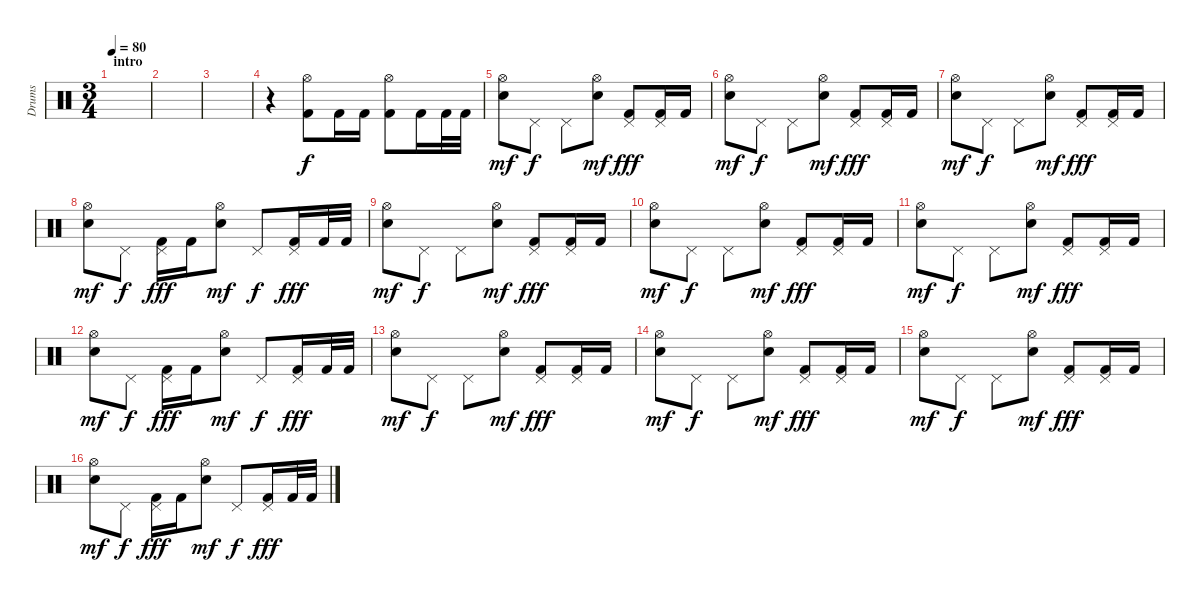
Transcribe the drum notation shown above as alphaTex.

\track ("Drums" "Drums") {instrument percussion}
\staff {score}
\articulation defaults
\ts (3 4)
\section ("" "intro")
\tempo 80
\clef neutral
\ks c
|
|
|
r.4 ("Kick (hit) 2" "Hi-Hat (open)").8 "Kick (hit) 2".16 "Kick (hit) 2".16 ("Kick (hit) 2" "Hi-Hat (open)").8 "Kick (hit) 2".16 "Kick (hit) 2".32 "Kick (hit) 2".32 |
("Hi-Hat (open)" "Snare (hit) 2").8{dy mf} "Pedal Hi-Hat (hit)".8{dy f} "Pedal Hi-Hat (hit)".8 ("Hi-Hat (open)" "Snare (hit) 2").8{dy mf} ("Pedal Hi-Hat (hit)" "Kick (hit) 2").8{dy fff} ("Pedal Hi-Hat (hit)" "Kick (hit) 2").16 "Kick (hit) 2".16 |
("Hi-Hat (open)" "Snare (hit) 2").8{dy mf} "Pedal Hi-Hat (hit)".8{dy f} "Pedal Hi-Hat (hit)".8 ("Hi-Hat (open)" "Snare (hit) 2").8{dy mf} ("Pedal Hi-Hat (hit)" "Kick (hit) 2").8{dy fff} ("Pedal Hi-Hat (hit)" "Kick (hit) 2").16 "Kick (hit) 2".16 |
("Hi-Hat (open)" "Snare (hit) 2").8{dy mf} "Pedal Hi-Hat (hit)".8{dy f} "Pedal Hi-Hat (hit)".8 ("Hi-Hat (open)" "Snare (hit) 2").8{dy mf} ("Pedal Hi-Hat (hit)" "Kick (hit) 2").8{dy fff} ("Pedal Hi-Hat (hit)" "Kick (hit) 2").16 "Kick (hit) 2".16 |
("Hi-Hat (open)" "Snare (hit) 2").8{dy mf} "Pedal Hi-Hat (hit)".8{dy f} ("Pedal Hi-Hat (hit)" "Kick (hit) 2").16{dy fff} "Kick (hit) 2".16 ("Hi-Hat (open)" "Snare (hit) 2").8{dy mf} "Pedal Hi-Hat (hit)".8{dy f} ("Pedal Hi-Hat (hit)" "Kick (hit) 2").16{dy fff} "Kick (hit) 2".32 "Kick (hit) 2".32 |
("Hi-Hat (open)" "Snare (hit) 2").8{dy mf} "Pedal Hi-Hat (hit)".8{dy f} "Pedal Hi-Hat (hit)".8 ("Hi-Hat (open)" "Snare (hit) 2").8{dy mf} ("Pedal Hi-Hat (hit)" "Kick (hit) 2").8{dy fff} ("Pedal Hi-Hat (hit)" "Kick (hit) 2").16 "Kick (hit) 2".16 |
("Hi-Hat (open)" "Snare (hit) 2").8{dy mf} "Pedal Hi-Hat (hit)".8{dy f} "Pedal Hi-Hat (hit)".8 ("Hi-Hat (open)" "Snare (hit) 2").8{dy mf} ("Pedal Hi-Hat (hit)" "Kick (hit) 2").8{dy fff} ("Pedal Hi-Hat (hit)" "Kick (hit) 2").16 "Kick (hit) 2".16 |
("Hi-Hat (open)" "Snare (hit) 2").8{dy mf} "Pedal Hi-Hat (hit)".8{dy f} "Pedal Hi-Hat (hit)".8 ("Hi-Hat (open)" "Snare (hit) 2").8{dy mf} ("Pedal Hi-Hat (hit)" "Kick (hit) 2").8{dy fff} ("Pedal Hi-Hat (hit)" "Kick (hit) 2").16 "Kick (hit) 2".16 |
("Hi-Hat (open)" "Snare (hit) 2").8{dy mf} "Pedal Hi-Hat (hit)".8{dy f} ("Pedal Hi-Hat (hit)" "Kick (hit) 2").16{dy fff} "Kick (hit) 2".16 ("Hi-Hat (open)" "Snare (hit) 2").8{dy mf} "Pedal Hi-Hat (hit)".8{dy f} ("Pedal Hi-Hat (hit)" "Kick (hit) 2").16{dy fff} "Kick (hit) 2".32 "Kick (hit) 2".32 |
("Hi-Hat (open)" "Snare (hit) 2").8{dy mf} "Pedal Hi-Hat (hit)".8{dy f} "Pedal Hi-Hat (hit)".8 ("Hi-Hat (open)" "Snare (hit) 2").8{dy mf} ("Pedal Hi-Hat (hit)" "Kick (hit) 2").8{dy fff} ("Pedal Hi-Hat (hit)" "Kick (hit) 2").16 "Kick (hit) 2".16 |
("Hi-Hat (open)" "Snare (hit) 2").8{dy mf} "Pedal Hi-Hat (hit)".8{dy f} "Pedal Hi-Hat (hit)".8 ("Hi-Hat (open)" "Snare (hit) 2").8{dy mf} ("Pedal Hi-Hat (hit)" "Kick (hit) 2").8{dy fff} ("Pedal Hi-Hat (hit)" "Kick (hit) 2").16 "Kick (hit) 2".16 |
("Hi-Hat (open)" "Snare (hit) 2").8{dy mf} "Pedal Hi-Hat (hit)".8{dy f} "Pedal Hi-Hat (hit)".8 ("Hi-Hat (open)" "Snare (hit) 2").8{dy mf} ("Pedal Hi-Hat (hit)" "Kick (hit) 2").8{dy fff} ("Pedal Hi-Hat (hit)" "Kick (hit) 2").16 "Kick (hit) 2".16 |
("Hi-Hat (open)" "Snare (hit) 2").8{dy mf} "Pedal Hi-Hat (hit)".8{dy f} ("Pedal Hi-Hat (hit)" "Kick (hit) 2").16{dy fff} "Kick (hit) 2".16 ("Hi-Hat (open)" "Snare (hit) 2").8{dy mf} "Pedal Hi-Hat (hit)".8{dy f} ("Pedal Hi-Hat (hit)" "Kick (hit) 2").16{dy fff} "Kick (hit) 2".32 "Kick (hit) 2".32
